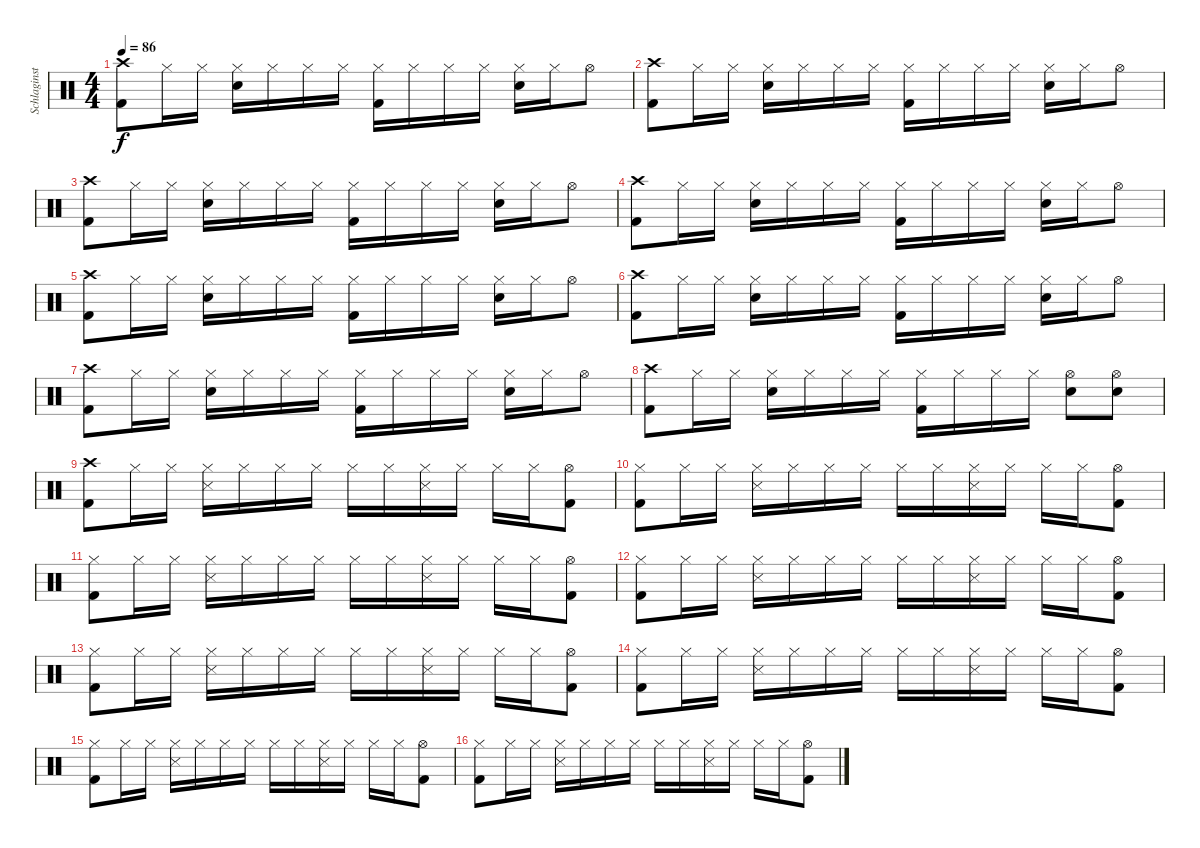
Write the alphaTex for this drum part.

\track ("Schlaginstrumente - Auswahl" "Schlaginst") {instrument percussion}
\staff {score}
\articulation defaults
\ts (4 4)
\tempo 86
\clef neutral
\ks c
("Crash high (hit)" "Kick (hit) 2").8{dy f} "Hi-Hat (closed)".16 "Hi-Hat (closed)".16 ("Hi-Hat (closed)" "Snare (hit) 2").16 "Hi-Hat (closed)".16 "Hi-Hat (closed)".16 "Hi-Hat (closed)".16 ("Hi-Hat (closed)" "Kick (hit) 2").16 "Hi-Hat (closed)".16 "Hi-Hat (closed)".16 "Hi-Hat (closed)".16 ("Hi-Hat (closed)" "Snare (hit) 2").16 "Hi-Hat (closed)".16 "Hi-Hat (open)".8 |
("Crash high (hit)" "Kick (hit) 2").8 "Hi-Hat (closed)".16 "Hi-Hat (closed)".16 ("Hi-Hat (closed)" "Snare (hit) 2").16 "Hi-Hat (closed)".16 "Hi-Hat (closed)".16 "Hi-Hat (closed)".16 ("Hi-Hat (closed)" "Kick (hit) 2").16 "Hi-Hat (closed)".16 "Hi-Hat (closed)".16 "Hi-Hat (closed)".16 ("Hi-Hat (closed)" "Snare (hit) 2").16 "Hi-Hat (closed)".16 "Hi-Hat (open)".8 |
("Crash high (hit)" "Kick (hit) 2").8 "Hi-Hat (closed)".16 "Hi-Hat (closed)".16 ("Hi-Hat (closed)" "Snare (hit) 2").16 "Hi-Hat (closed)".16 "Hi-Hat (closed)".16 "Hi-Hat (closed)".16 ("Hi-Hat (closed)" "Kick (hit) 2").16 "Hi-Hat (closed)".16 "Hi-Hat (closed)".16 "Hi-Hat (closed)".16 ("Hi-Hat (closed)" "Snare (hit) 2").16 "Hi-Hat (closed)".16 "Hi-Hat (open)".8 |
("Crash high (hit)" "Kick (hit) 2").8 "Hi-Hat (closed)".16 "Hi-Hat (closed)".16 ("Hi-Hat (closed)" "Snare (hit) 2").16 "Hi-Hat (closed)".16 "Hi-Hat (closed)".16 "Hi-Hat (closed)".16 ("Hi-Hat (closed)" "Kick (hit) 2").16 "Hi-Hat (closed)".16 "Hi-Hat (closed)".16 "Hi-Hat (closed)".16 ("Hi-Hat (closed)" "Snare (hit) 2").16 "Hi-Hat (closed)".16 "Hi-Hat (open)".8 |
("Crash high (hit)" "Kick (hit) 2").8 "Hi-Hat (closed)".16 "Hi-Hat (closed)".16 ("Hi-Hat (closed)" "Snare (hit) 2").16 "Hi-Hat (closed)".16 "Hi-Hat (closed)".16 "Hi-Hat (closed)".16 ("Hi-Hat (closed)" "Kick (hit) 2").16 "Hi-Hat (closed)".16 "Hi-Hat (closed)".16 "Hi-Hat (closed)".16 ("Hi-Hat (closed)" "Snare (hit) 2").16 "Hi-Hat (closed)".16 "Hi-Hat (open)".8 |
("Crash high (hit)" "Kick (hit) 2").8 "Hi-Hat (closed)".16 "Hi-Hat (closed)".16 ("Hi-Hat (closed)" "Snare (hit) 2").16 "Hi-Hat (closed)".16 "Hi-Hat (closed)".16 "Hi-Hat (closed)".16 ("Hi-Hat (closed)" "Kick (hit) 2").16 "Hi-Hat (closed)".16 "Hi-Hat (closed)".16 "Hi-Hat (closed)".16 ("Hi-Hat (closed)" "Snare (hit) 2").16 "Hi-Hat (closed)".16 "Hi-Hat (open)".8 |
("Crash high (hit)" "Kick (hit) 2").8 "Hi-Hat (closed)".16 "Hi-Hat (closed)".16 ("Hi-Hat (closed)" "Snare (hit) 2").16 "Hi-Hat (closed)".16 "Hi-Hat (closed)".16 "Hi-Hat (closed)".16 ("Hi-Hat (closed)" "Kick (hit) 2").16 "Hi-Hat (closed)".16 "Hi-Hat (closed)".16 "Hi-Hat (closed)".16 ("Hi-Hat (closed)" "Snare (hit) 2").16 "Hi-Hat (closed)".16 "Hi-Hat (open)".8 |
("Crash high (hit)" "Kick (hit) 2").8 "Hi-Hat (closed)".16 "Hi-Hat (closed)".16 ("Hi-Hat (closed)" "Snare (hit) 2").16 "Hi-Hat (closed)".16 "Hi-Hat (closed)".16 "Hi-Hat (closed)".16 ("Hi-Hat (closed)" "Kick (hit) 2").16 "Hi-Hat (closed)".16 "Hi-Hat (closed)".16 "Hi-Hat (closed)".16 ("Hi-Hat (open)" "Snare (hit) 2").8 ("Hi-Hat (open)" "Snare (hit) 2").8 |
("Crash high (hit)" "Kick (hit) 2").8 "Hi-Hat (closed)".16 "Hi-Hat (closed)".16 ("Hi-Hat (closed)" "Snare (side stick) 3").16 "Hi-Hat (closed)".16 "Hi-Hat (closed)".16 "Hi-Hat (closed)".16 "Hi-Hat (closed)".16 "Hi-Hat (closed)".16 ("Hi-Hat (closed)" "Snare (side stick) 3").16 "Hi-Hat (closed)".16 "Hi-Hat (closed)".16 "Hi-Hat (closed)".16 ("Hi-Hat (open)" "Kick (hit) 2").8 |
("Hi-Hat (closed)" "Kick (hit) 2").8 "Hi-Hat (closed)".16 "Hi-Hat (closed)".16 ("Hi-Hat (closed)" "Snare (side stick) 3").16 "Hi-Hat (closed)".16 "Hi-Hat (closed)".16 "Hi-Hat (closed)".16 "Hi-Hat (closed)".16 "Hi-Hat (closed)".16 ("Hi-Hat (closed)" "Snare (side stick) 3").16 "Hi-Hat (closed)".16 "Hi-Hat (closed)".16 "Hi-Hat (closed)".16 ("Hi-Hat (open)" "Kick (hit) 2").8 |
("Hi-Hat (closed)" "Kick (hit) 2").8 "Hi-Hat (closed)".16 "Hi-Hat (closed)".16 ("Hi-Hat (closed)" "Snare (side stick) 3").16 "Hi-Hat (closed)".16 "Hi-Hat (closed)".16 "Hi-Hat (closed)".16 "Hi-Hat (closed)".16 "Hi-Hat (closed)".16 ("Hi-Hat (closed)" "Snare (side stick) 3").16 "Hi-Hat (closed)".16 "Hi-Hat (closed)".16 "Hi-Hat (closed)".16 ("Hi-Hat (open)" "Kick (hit) 2").8 |
("Hi-Hat (closed)" "Kick (hit) 2").8 "Hi-Hat (closed)".16 "Hi-Hat (closed)".16 ("Hi-Hat (closed)" "Snare (side stick) 3").16 "Hi-Hat (closed)".16 "Hi-Hat (closed)".16 "Hi-Hat (closed)".16 "Hi-Hat (closed)".16 "Hi-Hat (closed)".16 ("Hi-Hat (closed)" "Snare (side stick) 3").16 "Hi-Hat (closed)".16 "Hi-Hat (closed)".16 "Hi-Hat (closed)".16 ("Hi-Hat (open)" "Kick (hit) 2").8 |
("Hi-Hat (closed)" "Kick (hit) 2").8 "Hi-Hat (closed)".16 "Hi-Hat (closed)".16 ("Hi-Hat (closed)" "Snare (side stick) 3").16 "Hi-Hat (closed)".16 "Hi-Hat (closed)".16 "Hi-Hat (closed)".16 "Hi-Hat (closed)".16 "Hi-Hat (closed)".16 ("Hi-Hat (closed)" "Snare (side stick) 3").16 "Hi-Hat (closed)".16 "Hi-Hat (closed)".16 "Hi-Hat (closed)".16 ("Hi-Hat (open)" "Kick (hit) 2").8 |
("Hi-Hat (closed)" "Kick (hit) 2").8 "Hi-Hat (closed)".16 "Hi-Hat (closed)".16 ("Hi-Hat (closed)" "Snare (side stick) 3").16 "Hi-Hat (closed)".16 "Hi-Hat (closed)".16 "Hi-Hat (closed)".16 "Hi-Hat (closed)".16 "Hi-Hat (closed)".16 ("Hi-Hat (closed)" "Snare (side stick) 3").16 "Hi-Hat (closed)".16 "Hi-Hat (closed)".16 "Hi-Hat (closed)".16 ("Hi-Hat (open)" "Kick (hit) 2").8 |
("Hi-Hat (closed)" "Kick (hit) 2").8 "Hi-Hat (closed)".16 "Hi-Hat (closed)".16 ("Hi-Hat (closed)" "Snare (side stick) 3").16 "Hi-Hat (closed)".16 "Hi-Hat (closed)".16 "Hi-Hat (closed)".16 "Hi-Hat (closed)".16 "Hi-Hat (closed)".16 ("Hi-Hat (closed)" "Snare (side stick) 3").16 "Hi-Hat (closed)".16 "Hi-Hat (closed)".16 "Hi-Hat (closed)".16 ("Hi-Hat (open)" "Kick (hit) 2").8 |
("Hi-Hat (closed)" "Kick (hit) 2").8 "Hi-Hat (closed)".16 "Hi-Hat (closed)".16 ("Hi-Hat (closed)" "Snare (side stick) 3").16 "Hi-Hat (closed)".16 "Hi-Hat (closed)".16 "Hi-Hat (closed)".16 "Hi-Hat (closed)".16 "Hi-Hat (closed)".16 ("Hi-Hat (closed)" "Snare (side stick) 3").16 "Hi-Hat (closed)".16 "Hi-Hat (closed)".16 "Hi-Hat (closed)".16 ("Hi-Hat (open)" "Kick (hit) 2").8
